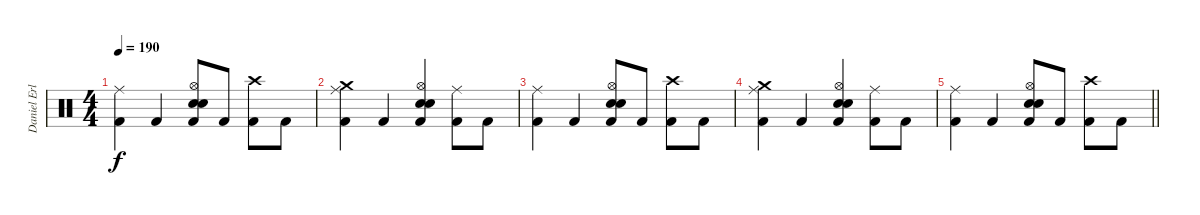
\track ("Daniel Erlandsson" "Daniel Erl") {instrument percussion}
\staff {score}
\articulation defaults
\ts (4 4)
\tempo 190
\clef neutral
\ks c
("Ride (middle)" "Kick (hit) 2").4{dy f} "Kick (hit) 2".4 ("Hi-Hat (open)" "Snare (hit) 2" "Electric Snare (hit)" "Kick (hit) 2").8 "Kick (hit) 2".8 ("Crash high (hit)" "Kick (hit) 2").8 "Kick (hit) 2".8 |
("Crash medium (hit)" "Ride (middle)" "Kick (hit) 2").4 "Kick (hit) 2".4 ("Hi-Hat (open)" "Snare (hit) 2" "Electric Snare (hit)" "Kick (hit) 2").4 ("Ride (middle)" "Kick (hit) 2").8 "Kick (hit) 2".8 |
("Ride (middle)" "Kick (hit) 2").4 "Kick (hit) 2".4 ("Hi-Hat (open)" "Snare (hit) 2" "Electric Snare (hit)" "Kick (hit) 2").8 "Kick (hit) 2".8 ("Crash high (hit)" "Kick (hit) 2").8 "Kick (hit) 2".8 |
("Crash medium (hit)" "Ride (middle)" "Kick (hit) 2").4 "Kick (hit) 2".4 ("Hi-Hat (open)" "Snare (hit) 2" "Electric Snare (hit)" "Kick (hit) 2").4 ("Ride (middle)" "Kick (hit) 2").8 "Kick (hit) 2".8 |
\barLineRight lightlight
("Ride (middle)" "Kick (hit) 2").4 "Kick (hit) 2".4 ("Hi-Hat (open)" "Snare (hit) 2" "Electric Snare (hit)" "Kick (hit) 2").8 "Kick (hit) 2".8 ("Crash high (hit)" "Kick (hit) 2").8 "Kick (hit) 2".8
